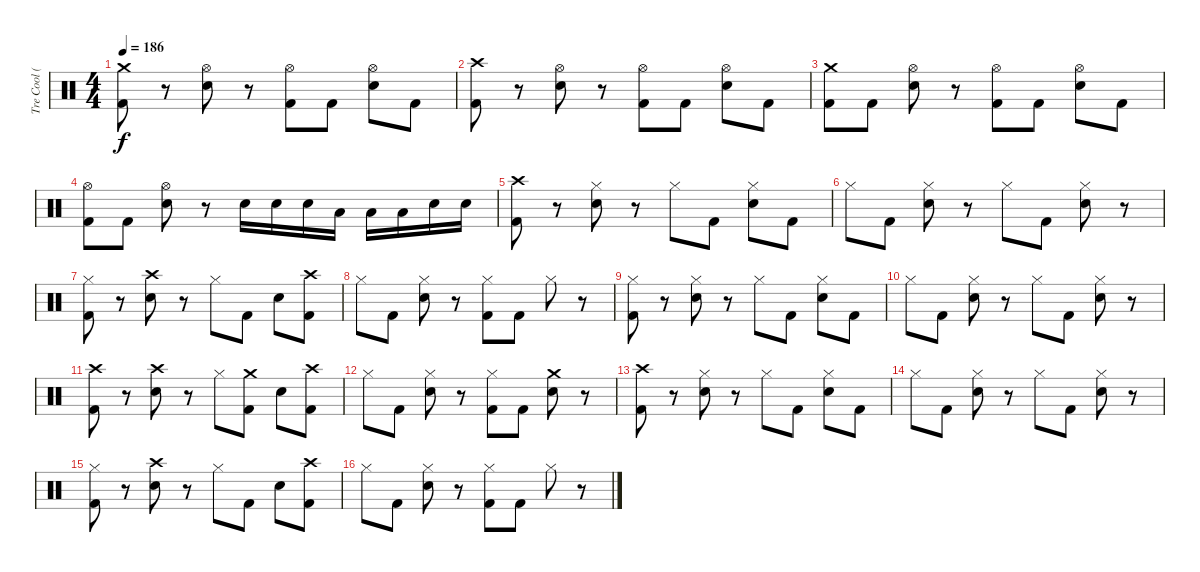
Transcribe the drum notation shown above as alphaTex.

\track ("Tre Cool (Drums)" "Tre Cool (") {instrument percussion}
\staff {score}
\articulation defaults
\ts (4 4)
\tempo 186
\clef neutral
\ks c
("Crash medium (hit)" "Kick (hit) 2").8{dy f} r.8 ("Hi-Hat (open)" "Snare (hit) 2").8 r.8 ("Hi-Hat (open)" "Kick (hit) 2").8 "Kick (hit) 2".8 ("Hi-Hat (open)" "Snare (hit) 2").8 "Kick (hit) 2".8 |
("Crash high (hit)" "Kick (hit) 2").8 r.8 ("Hi-Hat (open)" "Snare (hit) 2").8 r.8 ("Hi-Hat (open)" "Kick (hit) 2").8 "Kick (hit) 2".8 ("Hi-Hat (open)" "Snare (hit) 2").8 "Kick (hit) 2".8 |
("Kick (hit) 2" "Crash medium (hit)").8 "Kick (hit) 2".8 ("Snare (hit) 2" "Hi-Hat (open)").8 r.8 ("Kick (hit) 2" "Hi-Hat (open)").8 "Kick (hit) 2".8 ("Snare (hit) 2" "Hi-Hat (open)").8 "Kick (hit) 2".8 |
("Kick (hit) 2" "Hi-Hat (open)").8 "Kick (hit) 2".8 ("Snare (hit) 2" "Hi-Hat (open)").8 r.8 "Snare (hit) 2".16 "Snare (hit) 2".16 "Snare (hit) 2".16 "Low Tom (hit)".16 "Low Tom (hit)".16 "Low Tom (hit)".16 "Snare (hit) 2".16 "Snare (hit) 2".16 |
("Kick (hit) 2" "Crash high (hit)").8 r.8 ("Snare (hit) 2" "Hi-Hat (closed)").8 r.8 "Hi-Hat (closed)".8 "Kick (hit) 2".8 ("Snare (hit) 2" "Hi-Hat (closed)").8 "Kick (hit) 2".8 |
"Hi-Hat (closed)".8 "Kick (hit) 2".8 ("Snare (hit) 2" "Hi-Hat (closed)").8 r.8 "Hi-Hat (closed)".8 "Kick (hit) 2".8 ("Snare (hit) 2" "Hi-Hat (closed)").8 r.8 |
("Kick (hit) 2" "Hi-Hat (closed)").8 r.8 ("Snare (hit) 2" "Crash high (hit)").8 r.8 "Hi-Hat (closed)".8 "Kick (hit) 2".8 "Snare (hit) 2".8 ("Kick (hit) 2" "Crash high (hit)").8 |
"Hi-Hat (closed)".8 "Kick (hit) 2".8 ("Snare (hit) 2" "Hi-Hat (closed)").8 r.8 ("Kick (hit) 2" "Hi-Hat (closed)").8 "Kick (hit) 2".8 "Hi-Hat (closed)".8 r.8 |
("Hi-Hat (closed)" "Kick (hit) 2").8 r.8 ("Hi-Hat (closed)" "Snare (hit) 2").8 r.8 "Hi-Hat (closed)".8 "Kick (hit) 2".8 ("Hi-Hat (closed)" "Snare (hit) 2").8 "Kick (hit) 2".8 |
"Hi-Hat (closed)".8 "Kick (hit) 2".8 ("Hi-Hat (closed)" "Snare (hit) 2").8 r.8 "Hi-Hat (closed)".8 "Kick (hit) 2".8 ("Hi-Hat (closed)" "Snare (hit) 2").8 r.8 |
("Kick (hit) 2" "Crash high (hit)").8 r.8 ("Snare (hit) 2" "Crash high (hit)").8 r.8 "Hi-Hat (closed)".8 ("Kick (hit) 2" "Crash medium (hit)").8 "Snare (hit) 2".8 ("Kick (hit) 2" "Crash high (hit)").8 |
"Hi-Hat (closed)".8 "Kick (hit) 2".8 ("Hi-Hat (closed)" "Snare (hit) 2").8 r.8 ("Hi-Hat (closed)" "Kick (hit) 2").8 "Kick (hit) 2".8 ("Snare (hit) 2" "Crash medium (hit)").8 r.8 |
("Crash high (hit)" "Kick (hit) 2").8 r.8 ("Hi-Hat (closed)" "Snare (hit) 2").8 r.8 "Hi-Hat (closed)".8 "Kick (hit) 2".8 ("Hi-Hat (closed)" "Snare (hit) 2").8 "Kick (hit) 2".8 |
"Hi-Hat (closed)".8 "Kick (hit) 2".8 ("Hi-Hat (closed)" "Snare (hit) 2").8 r.8 "Hi-Hat (closed)".8 "Kick (hit) 2".8 ("Hi-Hat (closed)" "Snare (hit) 2").8 r.8 |
("Hi-Hat (closed)" "Kick (hit) 2").8 r.8 ("Snare (hit) 2" "Crash high (hit)").8 r.8 "Hi-Hat (closed)".8 "Kick (hit) 2".8 "Snare (hit) 2".8 ("Kick (hit) 2" "Crash high (hit)").8 |
"Hi-Hat (closed)".8 "Kick (hit) 2".8 ("Hi-Hat (closed)" "Snare (hit) 2").8 r.8 ("Hi-Hat (closed)" "Kick (hit) 2").8 "Kick (hit) 2".8 "Hi-Hat (closed)".8 r.8
